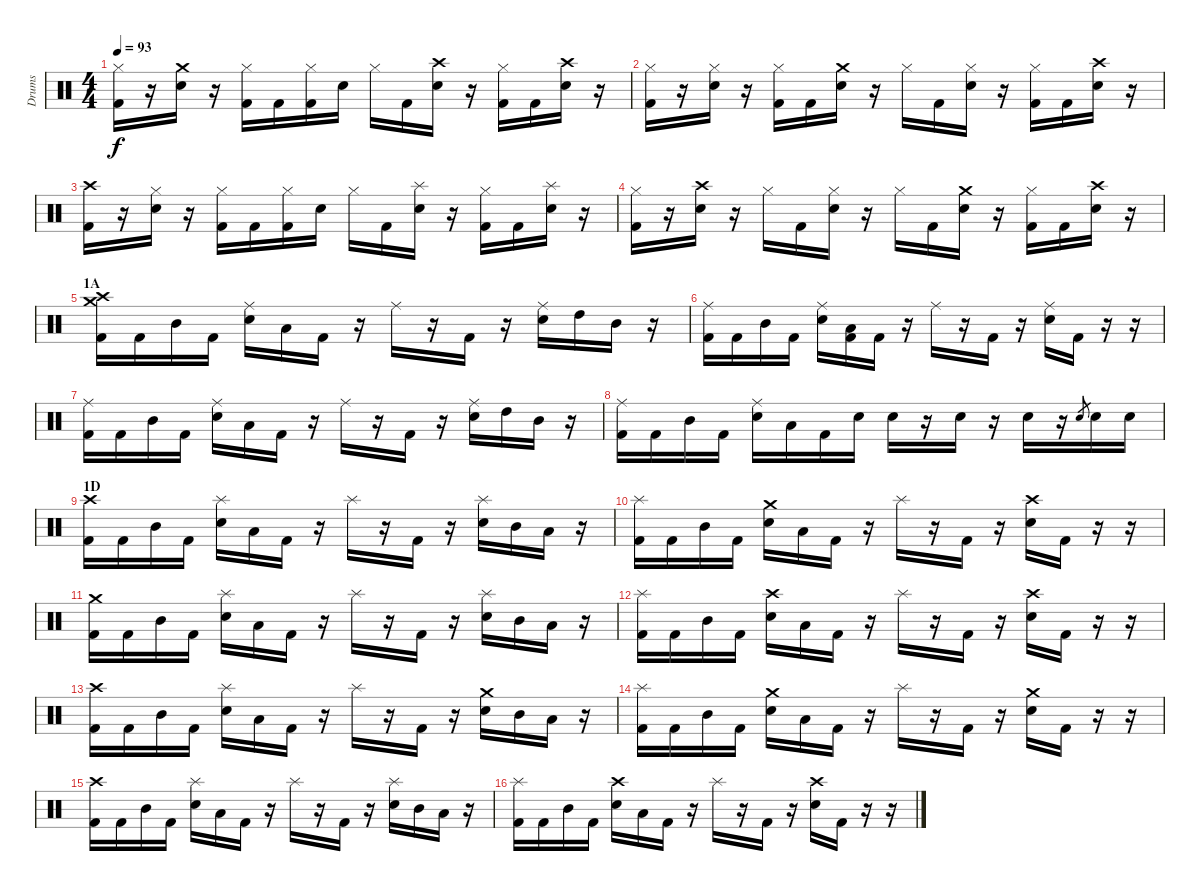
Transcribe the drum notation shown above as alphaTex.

\track ("Drums" "Drums") {instrument percussion}
\staff {score}
\articulation defaults
\ts (4 4)
\tempo 93
\clef neutral
\ks c
("Hi-Hat (closed)" "Kick (hit) 2").16{dy f} r.16 ("Crash medium (hit)" "Electric Snare (hit)").16 r.16 ("Hi-Hat (closed)" "Kick (hit) 2").16 "Kick (hit) 2".16 ("Hi-Hat (closed)" "Kick (hit) 2").16 "Electric Snare (hit)".16 "Hi-Hat (closed)".16 "Kick (hit) 2".16 ("Crash high (hit)" "Electric Snare (hit)").16 r.16 ("Hi-Hat (closed)" "Kick (hit) 2").16 "Kick (hit) 2".16 ("Crash high (hit)" "Electric Snare (hit)").16 r.16 |
("Hi-Hat (closed)" "Kick (hit) 2").16 r.16 ("Hi-Hat (closed)" "Electric Snare (hit)").16 r.16 ("Hi-Hat (closed)" "Kick (hit) 2").16 "Kick (hit) 2".16 ("Crash medium (hit)" "Electric Snare (hit)").16 r.16 "Hi-Hat (closed)".16 "Kick (hit) 2".16 ("Hi-Hat (closed)" "Electric Snare (hit)").16 r.16 ("Hi-Hat (closed)" "Kick (hit) 2").16 "Kick (hit) 2".16 ("Crash high (hit)" "Electric Snare (hit)").16 r.16 |
("Crash high (hit)" "Kick (hit) 2").16 r.16 ("Hi-Hat (closed)" "Electric Snare (hit)").16 r.16 ("Hi-Hat (closed)" "Kick (hit) 2").16 "Kick (hit) 2".16 ("Hi-Hat (closed)" "Kick (hit) 2").16 "Electric Snare (hit)".16 "Hi-Hat (closed)".16 "Kick (hit) 2".16 ("Splash (hit)" "Electric Snare (hit)").16 r.16 ("Hi-Hat (closed)" "Kick (hit) 2").16 "Kick (hit) 2".16 ("Splash (hit)" "Electric Snare (hit)").16 r.16 |
("Hi-Hat (closed)" "Kick (hit) 2").16 r.16 ("Crash high (hit)" "Electric Snare (hit)").16 r.16 "Hi-Hat (closed)".16 "Kick (hit) 2".16 ("Hi-Hat (closed)" "Electric Snare (hit)").16 r.16 "Hi-Hat (closed)".16 "Kick (hit) 2".16 ("Crash medium (hit)" "Electric Snare (hit)").16 r.16 ("Hi-Hat (closed)" "Kick (hit) 2").16 "Kick (hit) 2".16 ("Crash high (hit)" "Electric Snare (hit)").16 r.16 |
\section ("" "1A")
("Crash high (hit)" "Crash medium (hit)" "Kick (hit) 2").16 "Kick (hit) 2".16 "Mid Tom (hit)".16 "Kick (hit) 2".16 ("Ride (middle)" "Electric Snare (hit)").16 "Low Floor Tom (hit)".16 "Kick (hit) 2".16 r.16 "Ride (middle)".16 r.16 "Kick (hit) 2".16 r.16 ("Ride (middle)" "Electric Snare (hit)").16 "High Tom (hit)".16 "Mid Tom (hit)".16 r.16 |
("Ride (middle)" "Kick (hit) 2").16 "Kick (hit) 2".16 "Mid Tom (hit)".16 "Kick (hit) 2".16 ("Ride (middle)" "Electric Snare (hit)").16 ("Low Floor Tom (hit)" "Kick (hit) 2").16 "Kick (hit) 2".16 r.16 "Ride (middle)".16 r.16 "Kick (hit) 2".16 r.16 ("Ride (middle)" "Electric Snare (hit)").16 "Kick (hit) 2".16 r.16 r.16 |
("Ride (middle)" "Kick (hit) 2").16 "Kick (hit) 2".16 "Mid Tom (hit)".16 "Kick (hit) 2".16 ("Ride (middle)" "Electric Snare (hit)").16 "Low Floor Tom (hit)".16 "Kick (hit) 2".16 r.16 "Ride (middle)".16 r.16 "Kick (hit) 2".16 r.16 ("Ride (middle)" "Electric Snare (hit)").16 "High Tom (hit)".16 "Mid Tom (hit)".16 r.16 |
("Ride (middle)" "Kick (hit) 2").16 "Kick (hit) 2".16 "Mid Tom (hit)".16 "Kick (hit) 2".16 ("Ride (middle)" "Electric Snare (hit)").16 "Low Floor Tom (hit)".16 "Kick (hit) 2".16 "Electric Snare (hit)".16 "Electric Snare (hit)".16 r.16 "Electric Snare (hit)".16 r.16 "Electric Snare (hit)".16 r.16 "Electric Snare (hit)".8{gr} "Electric Snare (hit)".16 "Electric Snare (hit)".16 |
\section ("" "1D")
("Crash high (hit)" "Kick (hit) 2").16 "Kick (hit) 2".16 "Mid Tom (hit)".16 "Kick (hit) 2".16 ("Splash (hit)" "Electric Snare (hit)").16 "Low Floor Tom (hit)".16 "Kick (hit) 2".16 r.16 "Splash (hit)".16 r.16 "Kick (hit) 2".16 r.16 ("Splash (hit)" "Electric Snare (hit)").16 "Mid Tom (hit)".16 "Low Tom (hit)".16 r.16 |
("Splash (hit)" "Kick (hit) 2").16 "Kick (hit) 2".16 "Mid Tom (hit)".16 "Kick (hit) 2".16 ("Crash medium (hit)" "Electric Snare (hit)").16 "Low Floor Tom (hit)".16 "Kick (hit) 2".16 r.16 "Splash (hit)".16 r.16 "Kick (hit) 2".16 r.16 ("Crash high (hit)" "Electric Snare (hit)").16 "Kick (hit) 2".16 r.16 r.16 |
("Crash medium (hit)" "Kick (hit) 2").16 "Kick (hit) 2".16 "Mid Tom (hit)".16 "Kick (hit) 2".16 ("Splash (hit)" "Electric Snare (hit)").16 "Low Floor Tom (hit)".16 "Kick (hit) 2".16 r.16 "Splash (hit)".16 r.16 "Kick (hit) 2".16 r.16 ("Splash (hit)" "Electric Snare (hit)").16 "Mid Tom (hit)".16 "Low Tom (hit)".16 r.16 |
("Splash (hit)" "Kick (hit) 2").16 "Kick (hit) 2".16 "Mid Tom (hit)".16 "Kick (hit) 2".16 ("Crash high (hit)" "Electric Snare (hit)").16 "Low Floor Tom (hit)".16 "Kick (hit) 2".16 r.16 "Splash (hit)".16 r.16 "Kick (hit) 2".16 r.16 ("Crash high (hit)" "Electric Snare (hit)").16 "Kick (hit) 2".16 r.16 r.16 |
("Crash high (hit)" "Kick (hit) 2").16 "Kick (hit) 2".16 "Mid Tom (hit)".16 "Kick (hit) 2".16 ("Splash (hit)" "Electric Snare (hit)").16 "Low Floor Tom (hit)".16 "Kick (hit) 2".16 r.16 "Splash (hit)".16 r.16 "Kick (hit) 2".16 r.16 ("Crash medium (hit)" "Electric Snare (hit)").16 "Mid Tom (hit)".16 "Low Tom (hit)".16 r.16 |
("Splash (hit)" "Kick (hit) 2").16 "Kick (hit) 2".16 "Mid Tom (hit)".16 "Kick (hit) 2".16 ("Crash medium (hit)" "Electric Snare (hit)").16 "Low Floor Tom (hit)".16 "Kick (hit) 2".16 r.16 "Splash (hit)".16 r.16 "Kick (hit) 2".16 r.16 ("Crash medium (hit)" "Electric Snare (hit)").16 "Kick (hit) 2".16 r.16 r.16 |
("Crash high (hit)" "Kick (hit) 2").16 "Kick (hit) 2".16 "Mid Tom (hit)".16 "Kick (hit) 2".16 ("Splash (hit)" "Electric Snare (hit)").16 "Low Floor Tom (hit)".16 "Kick (hit) 2".16 r.16 "Splash (hit)".16 r.16 "Kick (hit) 2".16 r.16 ("Splash (hit)" "Electric Snare (hit)").16 "Mid Tom (hit)".16 "Low Tom (hit)".16 r.16 |
("Splash (hit)" "Kick (hit) 2").16 "Kick (hit) 2".16 "Mid Tom (hit)".16 "Kick (hit) 2".16 ("Crash high (hit)" "Electric Snare (hit)").16 "Low Floor Tom (hit)".16 "Kick (hit) 2".16 r.16 "Splash (hit)".16 r.16 "Kick (hit) 2".16 r.16 ("Crash high (hit)" "Electric Snare (hit)").16 "Kick (hit) 2".16 r.16 r.16
